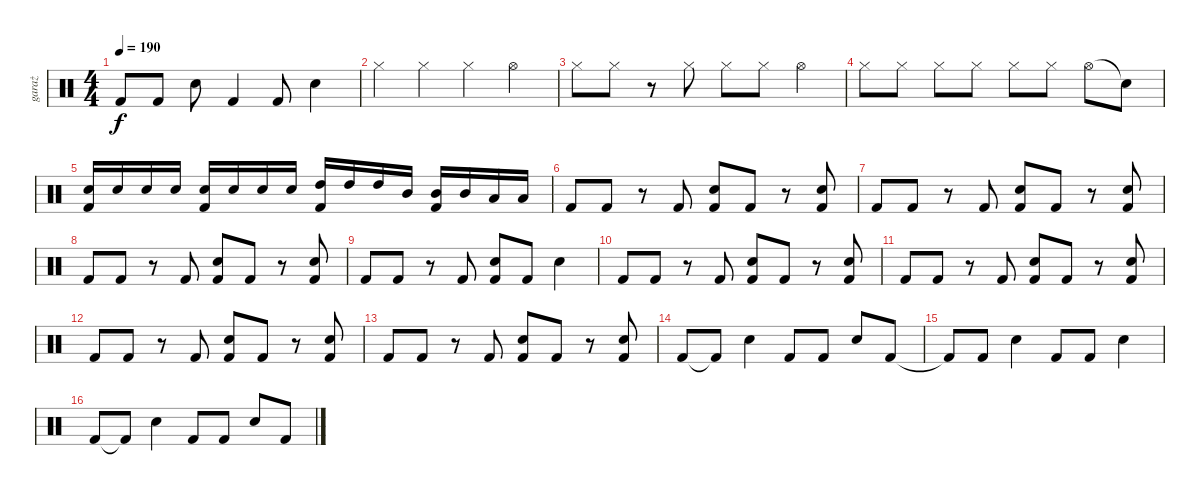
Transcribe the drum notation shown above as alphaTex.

\track ("garaż" "garaż") {instrument percussion}
\staff {score}
\articulation defaults
\ts (4 4)
\tempo 190
\clef neutral
\ks c "Kick (hit) 2"{t}.8{dy f} "Kick (hit) 2".8 "Snare (hit) 2".8 "Kick (hit) 2".4 "Kick (hit) 2".8 "Snare (hit) 2".4
|
"Hi-Hat (closed)".4 "Hi-Hat (closed)".4 "Hi-Hat (closed)".4 "Hi-Hat (open)".4 |
"Hi-Hat (closed)".8 "Hi-Hat (closed)".8 r.8 "Hi-Hat (closed)".8 "Hi-Hat (closed)".8 "Hi-Hat (closed)".8 "Hi-Hat (open)".4 |
"Hi-Hat (closed)".8 "Hi-Hat (closed)".8 "Hi-Hat (closed)".8 "Hi-Hat (closed)".8 "Hi-Hat (closed)".8 "Hi-Hat (closed)".8 "Hi-Hat (open)".8 "Snare (hit)"{t}.8 |
("Snare (hit) 2" "Kick (hit) 2").16 "Snare (hit) 2".16 "Snare (hit) 2".16 "Snare (hit) 2".16 ("Snare (hit) 2" "Kick (hit) 2").16 "Snare (hit) 2".16 "Snare (hit) 2".16 "Snare (hit) 2".16 ("High Tom (hit)" "Kick (hit) 2").16 "High Tom (hit)".16 "High Tom (hit)".16 "Mid Tom (hit)".16 ("Mid Tom (hit)" "Kick (hit) 2").16 "Mid Tom (hit)".16 "Low Tom (hit)".16 "Low Tom (hit)".16 |
"Kick (hit) 2".8 "Kick (hit) 2".8 r.8 "Kick (hit) 2".8 ("Snare (hit) 2" "Kick (hit) 2").8 "Kick (hit) 2".8 r.8 ("Snare (hit) 2" "Kick (hit) 2").8 |
"Kick (hit) 2".8 "Kick (hit) 2".8 r.8 "Kick (hit) 2".8 ("Snare (hit) 2" "Kick (hit) 2").8 "Kick (hit) 2".8 r.8 ("Snare (hit) 2" "Kick (hit) 2").8 |
"Kick (hit) 2".8 "Kick (hit) 2".8 r.8 "Kick (hit) 2".8 ("Snare (hit) 2" "Kick (hit) 2").8 "Kick (hit) 2".8 r.8 ("Snare (hit) 2" "Kick (hit) 2").8 |
"Kick (hit) 2".8 "Kick (hit) 2".8 r.8 "Kick (hit) 2".8 ("Snare (hit) 2" "Kick (hit) 2").8 "Kick (hit) 2".8 "Snare (hit) 2".4 |
"Kick (hit) 2".8 "Kick (hit) 2".8 r.8 "Kick (hit) 2".8 ("Snare (hit) 2" "Kick (hit) 2").8 "Kick (hit) 2".8 r.8 ("Snare (hit) 2" "Kick (hit) 2").8 |
"Kick (hit) 2".8 "Kick (hit) 2".8 r.8 "Kick (hit) 2".8 ("Snare (hit) 2" "Kick (hit) 2").8 "Kick (hit) 2".8 r.8 ("Snare (hit) 2" "Kick (hit) 2").8 |
"Kick (hit) 2".8 "Kick (hit) 2".8 r.8 "Kick (hit) 2".8 ("Snare (hit) 2" "Kick (hit) 2").8 "Kick (hit) 2".8 r.8 ("Snare (hit) 2" "Kick (hit) 2").8 |
"Kick (hit) 2".8 "Kick (hit) 2".8 r.8 "Kick (hit) 2".8 ("Snare (hit) 2" "Kick (hit) 2").8 "Kick (hit) 2".8 r.8 ("Snare (hit) 2" "Kick (hit) 2").8 |
"Kick (hit) 2".8 "Kick (hit) 2"{t}.8 "Snare (hit) 2".4 "Kick (hit) 2".8 "Kick (hit) 2".8 "Snare (hit) 2".8 "Kick (hit) 2".8 |
"Kick (hit) 2"{t}.8 "Kick (hit) 2".8 "Snare (hit) 2".4 "Kick (hit) 2".8 "Kick (hit) 2".8 "Snare (hit) 2".4 |
"Kick (hit) 2".8 "Kick (hit) 2"{t}.8 "Snare (hit) 2".4 "Kick (hit) 2".8 "Kick (hit) 2".8 "Snare (hit) 2".8 "Kick (hit) 2".8
